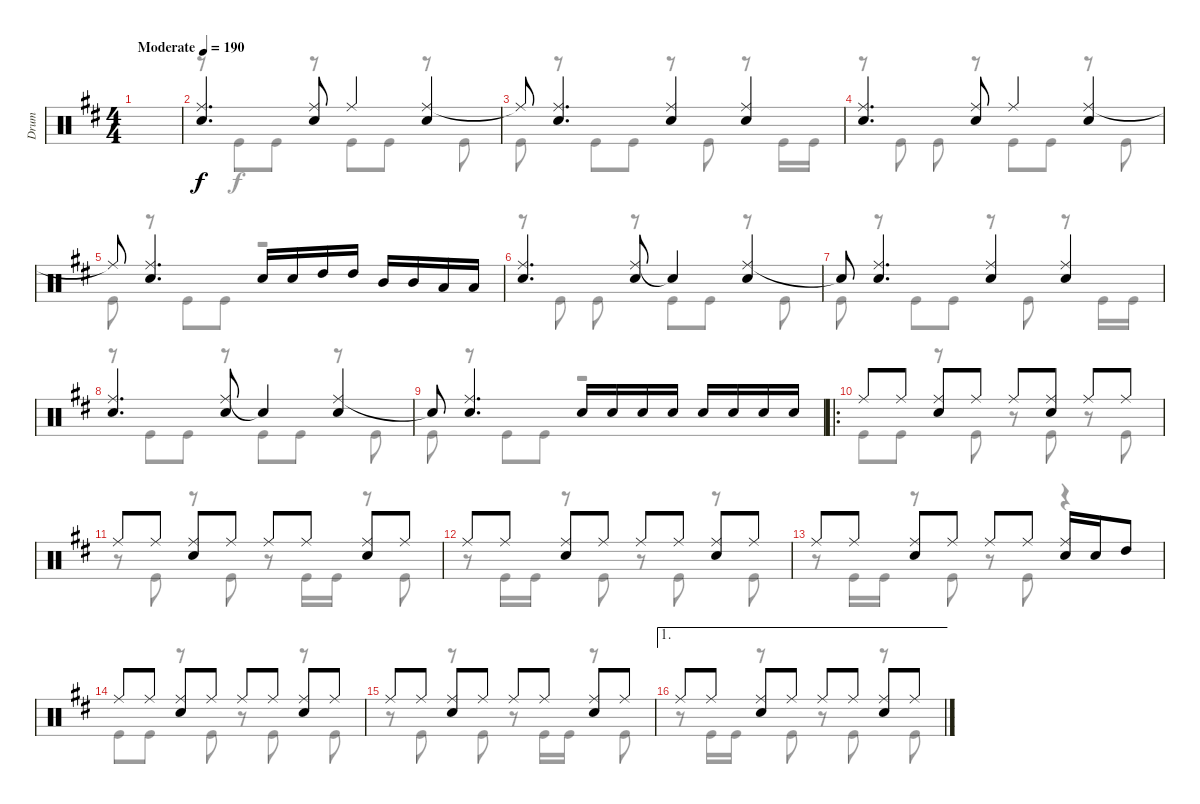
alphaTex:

\track ("Drum" "Drum") {instrument percussion}
\staff {score}
\articulation defaults
\voice
\ts (4 4)
\tempo (190 "Moderate")
\clef neutral
\ks d
|
("Ride (middle)" "Snare (hit) 2").4{d} ("Ride (middle)" "Snare (hit) 2").8 "Ride (middle)".4 ("Ride (middle)" "Snare (hit) 2").4 |
"Ride (middle)"{t}.8 ("Ride (middle)" "Snare (hit) 2").4{d} ("Ride (middle)" "Snare (hit) 2").4 ("Ride (middle)" "Snare (hit) 2").4 |
("Ride (middle)" "Snare (hit) 2").4{d} ("Ride (middle)" "Snare (hit) 2").8 "Ride (middle)".4 ("Ride (middle)" "Snare (hit) 2").4 |
"Ride (middle)"{t}.8 ("Ride (middle)" "Snare (hit) 2").4{d} "Snare (hit) 2".16 "Snare (hit) 2".16 "High Tom (hit)".16 "High Tom (hit)".16 "Mid Tom (hit)".16 "Mid Tom (hit)".16 "Low Tom (hit)".16 "Low Tom (hit)".16 |
("Snare (hit) 2" "Ride (middle)").4{d} ("Ride (middle)" "Snare (hit) 2").8 "Snare (hit)"{t}.4 ("Ride (middle)" "Snare (hit) 2").4 |
"Snare (hit)"{t}.8 ("Ride (middle)" "Snare (hit) 2").4{d} ("Ride (middle)" "Snare (hit) 2").4 ("Ride (middle)" "Snare (hit) 2").4 |
("Snare (hit) 2" "Ride (middle)").4{d} ("Ride (middle)" "Snare (hit) 2").8 "Snare (hit)"{t}.4 ("Ride (middle)" "Snare (hit) 2").4 |
"Snare (hit)"{t}.8 ("Ride (middle)" "Snare (hit) 2").4{d} "Snare (hit) 2".16 "Snare (hit) 2".16 "Snare (hit) 2".16 "Snare (hit) 2".16 "Snare (hit) 2".16 "Snare (hit) 2".16 "Snare (hit) 2".16 "Snare (hit) 2".16 |
\ro "Ride (middle)".8 "Ride (middle)".8
("Ride (middle)" "Snare (hit) 2").8 "Ride (middle)".8 "Ride (middle)".8 ("Ride (middle)" "Snare (hit) 2").8 "Ride (middle)".8 "Ride (middle)".8 |
"Ride (middle)".8 "Ride (middle)".8 ("Ride (middle)" "Snare (hit) 2").8 "Ride (middle)".8 "Ride (middle)".8 "Ride (middle)".8 ("Ride (middle)" "Snare (hit) 2").8 "Ride (middle)".8 |
"Ride (middle)".8 "Ride (middle)".8 ("Ride (middle)" "Snare (hit) 2").8 "Ride (middle)".8 "Ride (middle)".8 "Ride (middle)".8 ("Ride (middle)" "Snare (hit) 2").8 "Ride (middle)".8 |
"Ride (middle)".8 "Ride (middle)".8 ("Ride (middle)" "Snare (hit) 2").8 "Ride (middle)".8 "Ride (middle)".8 "Ride (middle)".8 ("Ride (middle)" "Snare (hit) 2").16 "Snare (hit) 2".16 "High Tom (hit)".8 |
"Ride (middle)".8 "Ride (middle)".8 ("Ride (middle)" "Snare (hit) 2").8 "Ride (middle)".8 "Ride (middle)".8 "Ride (middle)".8 ("Ride (middle)" "Snare (hit) 2").8 "Ride (middle)".8 |
"Ride (middle)".8 "Ride (middle)".8 ("Ride (middle)" "Snare (hit) 2").8 "Ride (middle)".8 "Ride (middle)".8 "Ride (middle)".8 ("Ride (middle)" "Snare (hit) 2").8 "Ride (middle)".8 |
\ae 1 "Ride (middle)".8 "Ride (middle)".8
("Ride (middle)" "Snare (hit) 2").8 "Ride (middle)".8 "Ride (middle)".8 "Ride (middle)".8 ("Ride (middle)" "Snare (hit) 2").8 "Ride (middle)".8
\voice
\clef neutral
\ottava regular
\simile none
\ks d
|
r.8 "Kick (hit)".8{beam merge} "Kick (hit)".8 r.8 "Kick (hit)".8 "Kick (hit)".8 r.8 "Kick (hit)".8 |
"Kick (hit)".8 r.8 "Kick (hit)".8 "Kick (hit)".8 r.8 "Kick (hit)".8 r.8 "Kick (hit)".16 "Kick (hit)".16 |
r.8 "Kick (hit)".8 "Kick (hit)".8 r.8 "Kick (hit)".8 "Kick (hit)".8 r.8 "Kick (hit)".8 |
"Kick (hit)".8 r.8 "Kick (hit)".8 "Kick (hit)".8 r.2 |
r.8 "Kick (hit)".8 "Kick (hit)".8 r.8 "Kick (hit)".8 "Kick (hit)".8 r.8 "Kick (hit)".8 |
"Kick (hit)".8 r.8 "Kick (hit)".8 "Kick (hit)".8 r.8 "Kick (hit)".8 r.8 "Kick (hit)".16 "Kick (hit)".16 |
r.8 "Kick (hit)".8{beam merge} "Kick (hit)".8 r.8 "Kick (hit)".8 "Kick (hit)".8 r.8 "Kick (hit)".8 |
"Kick (hit)".8 r.8 "Kick (hit)".8 "Kick (hit)".8 r.2 |
"Kick (hit)".8 "Kick (hit)".8 r.8 "Kick (hit)".8 r.8 "Kick (hit)".8 r.8 "Kick (hit)".8 |
r.8 "Kick (hit)".8 r.8 "Kick (hit)".8 r.8 "Kick (hit)".16 "Kick (hit)".16 r.8 "Kick (hit)".8 |
r.8 "Kick (hit)".16 "Kick (hit)".16 r.8 "Kick (hit)".8 r.8 "Kick (hit)".8 r.8 "Kick (hit)".8 |
r.8 "Kick (hit)".16 "Kick (hit)".16 r.8 "Kick (hit)".8 r.8 "Kick (hit)".8 r.4 |
"Kick (hit)".8 "Kick (hit)".8 r.8 "Kick (hit)".8 r.8 "Kick (hit)".8 r.8 "Kick (hit)".8 |
r.8 "Kick (hit)".8 r.8 "Kick (hit)".8 r.8 "Kick (hit)".16 "Kick (hit)".16 r.8 "Kick (hit)".8 |
r.8 "Kick (hit)".16 "Kick (hit)".16 r.8 "Kick (hit)".8 r.8 "Kick (hit)".8 r.8 "Kick (hit)".8
